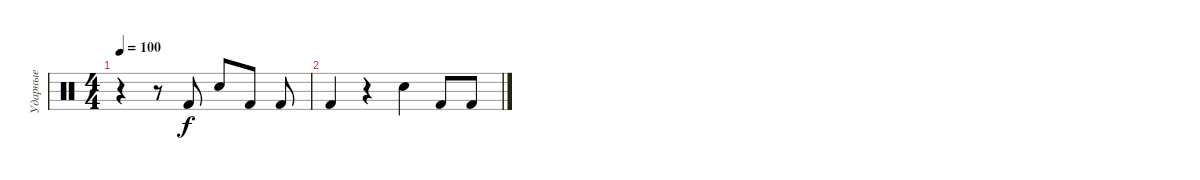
\track ("Ударные" "Ударные") {instrument percussion}
\staff {score}
\articulation defaults
\ts (4 4)
\tempo 100
\clef neutral
\ks c
r.4{dy f} r.8 "Kick (hit) 2".8 "Electric Snare (hit)".8 "Kick (hit) 2".8 "Kick (hit) 2".8 |
"Kick (hit) 2".4 r.4 "Electric Snare (hit)".4 "Kick (hit) 2".8 "Kick (hit) 2".8
